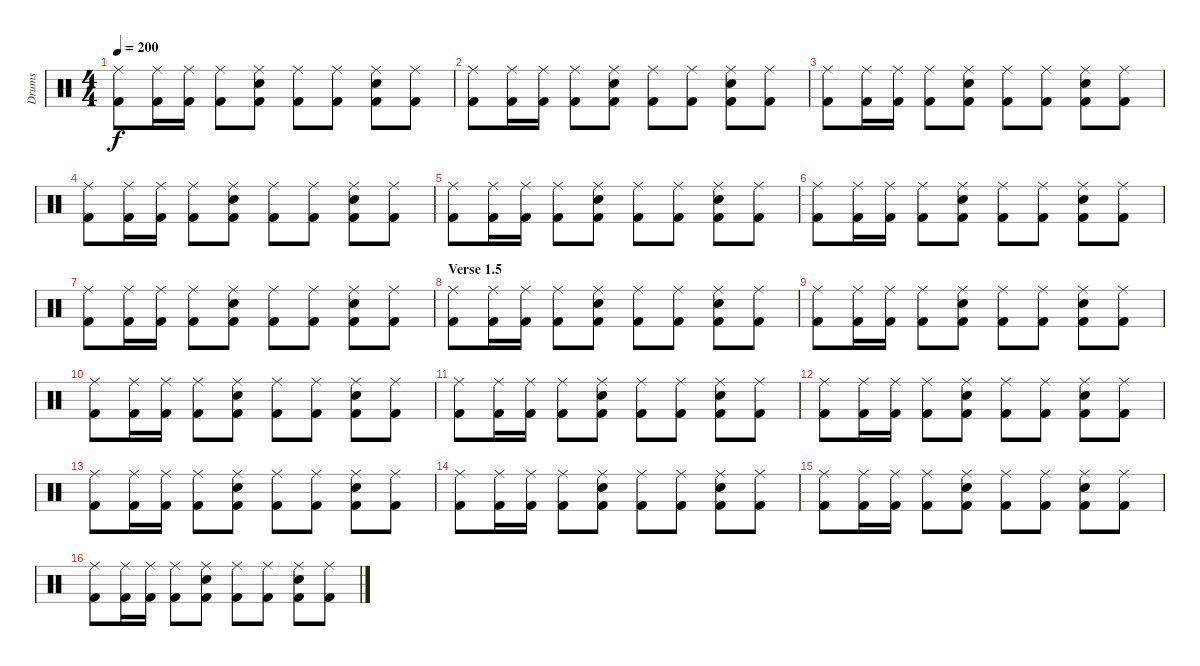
\track ("Drums" "Drums") {instrument percussion}
\staff {score}
\articulation defaults
\ts (4 4)
\tempo 200
\clef neutral
\ks c
("Ride (middle)" "Kick (hit) 2").8{dy f} ("Ride (middle)" "Kick (hit) 2").16 ("Ride (middle)" "Kick (hit) 2").16 ("Ride (middle)" "Kick (hit) 2").8 ("Ride (middle)" "Snare (hit) 2" "Kick (hit) 2").8 ("Ride (middle)" "Kick (hit) 2").8 ("Ride (middle)" "Kick (hit) 2").8 ("Ride (middle)" "Snare (hit) 2" "Kick (hit) 2").8 ("Ride (middle)" "Kick (hit) 2").8 |
("Ride (middle)" "Kick (hit) 2").8 ("Ride (middle)" "Kick (hit) 2").16 ("Ride (middle)" "Kick (hit) 2").16 ("Ride (middle)" "Kick (hit) 2").8 ("Ride (middle)" "Snare (hit) 2" "Kick (hit) 2").8 ("Ride (middle)" "Kick (hit) 2").8 ("Ride (middle)" "Kick (hit) 2").8 ("Ride (middle)" "Snare (hit) 2" "Kick (hit) 2").8 ("Ride (middle)" "Kick (hit) 2").8 |
("Ride (middle)" "Kick (hit) 2").8 ("Ride (middle)" "Kick (hit) 2").16 ("Ride (middle)" "Kick (hit) 2").16 ("Ride (middle)" "Kick (hit) 2").8 ("Ride (middle)" "Snare (hit) 2" "Kick (hit) 2").8 ("Ride (middle)" "Kick (hit) 2").8 ("Ride (middle)" "Kick (hit) 2").8 ("Ride (middle)" "Snare (hit) 2" "Kick (hit) 2").8 ("Ride (middle)" "Kick (hit) 2").8 |
("Ride (middle)" "Kick (hit) 2").8 ("Ride (middle)" "Kick (hit) 2").16 ("Ride (middle)" "Kick (hit) 2").16 ("Ride (middle)" "Kick (hit) 2").8 ("Ride (middle)" "Snare (hit) 2" "Kick (hit) 2").8 ("Ride (middle)" "Kick (hit) 2").8 ("Ride (middle)" "Kick (hit) 2").8 ("Ride (middle)" "Snare (hit) 2" "Kick (hit) 2").8 ("Ride (middle)" "Kick (hit) 2").8 |
("Ride (middle)" "Kick (hit) 2").8 ("Ride (middle)" "Kick (hit) 2").16 ("Ride (middle)" "Kick (hit) 2").16 ("Ride (middle)" "Kick (hit) 2").8 ("Ride (middle)" "Snare (hit) 2" "Kick (hit) 2").8 ("Ride (middle)" "Kick (hit) 2").8 ("Ride (middle)" "Kick (hit) 2").8 ("Ride (middle)" "Snare (hit) 2" "Kick (hit) 2").8 ("Ride (middle)" "Kick (hit) 2").8 |
("Ride (middle)" "Kick (hit) 2").8 ("Ride (middle)" "Kick (hit) 2").16 ("Ride (middle)" "Kick (hit) 2").16 ("Ride (middle)" "Kick (hit) 2").8 ("Ride (middle)" "Snare (hit) 2" "Kick (hit) 2").8 ("Ride (middle)" "Kick (hit) 2").8 ("Ride (middle)" "Kick (hit) 2").8 ("Ride (middle)" "Snare (hit) 2" "Kick (hit) 2").8 ("Ride (middle)" "Kick (hit) 2").8 |
("Ride (middle)" "Kick (hit) 2").8 ("Ride (middle)" "Kick (hit) 2").16 ("Ride (middle)" "Kick (hit) 2").16 ("Ride (middle)" "Kick (hit) 2").8 ("Ride (middle)" "Snare (hit) 2" "Kick (hit) 2").8 ("Ride (middle)" "Kick (hit) 2").8 ("Ride (middle)" "Kick (hit) 2").8 ("Ride (middle)" "Snare (hit) 2" "Kick (hit) 2").8 ("Ride (middle)" "Kick (hit) 2").8 |
\section ("" "Verse 1.5")
("Ride (middle)" "Kick (hit) 2").8 ("Ride (middle)" "Kick (hit) 2").16 ("Ride (middle)" "Kick (hit) 2").16 ("Ride (middle)" "Kick (hit) 2").8 ("Ride (middle)" "Snare (hit) 2" "Kick (hit) 2").8 ("Ride (middle)" "Kick (hit) 2").8 ("Ride (middle)" "Kick (hit) 2").8 ("Ride (middle)" "Snare (hit) 2" "Kick (hit) 2").8 ("Ride (middle)" "Kick (hit) 2").8 |
("Ride (middle)" "Kick (hit) 2").8 ("Ride (middle)" "Kick (hit) 2").16 ("Ride (middle)" "Kick (hit) 2").16 ("Ride (middle)" "Kick (hit) 2").8 ("Ride (middle)" "Snare (hit) 2" "Kick (hit) 2").8 ("Ride (middle)" "Kick (hit) 2").8 ("Ride (middle)" "Kick (hit) 2").8 ("Ride (middle)" "Snare (hit) 2" "Kick (hit) 2").8 ("Ride (middle)" "Kick (hit) 2").8 |
("Ride (middle)" "Kick (hit) 2").8 ("Ride (middle)" "Kick (hit) 2").16 ("Ride (middle)" "Kick (hit) 2").16 ("Ride (middle)" "Kick (hit) 2").8 ("Ride (middle)" "Snare (hit) 2" "Kick (hit) 2").8 ("Ride (middle)" "Kick (hit) 2").8 ("Ride (middle)" "Kick (hit) 2").8 ("Ride (middle)" "Snare (hit) 2" "Kick (hit) 2").8 ("Ride (middle)" "Kick (hit) 2").8 |
("Ride (middle)" "Kick (hit) 2").8 ("Ride (middle)" "Kick (hit) 2").16 ("Ride (middle)" "Kick (hit) 2").16 ("Ride (middle)" "Kick (hit) 2").8 ("Ride (middle)" "Snare (hit) 2" "Kick (hit) 2").8 ("Ride (middle)" "Kick (hit) 2").8 ("Ride (middle)" "Kick (hit) 2").8 ("Ride (middle)" "Snare (hit) 2" "Kick (hit) 2").8 ("Ride (middle)" "Kick (hit) 2").8 |
("Ride (middle)" "Kick (hit) 2").8 ("Ride (middle)" "Kick (hit) 2").16 ("Ride (middle)" "Kick (hit) 2").16 ("Ride (middle)" "Kick (hit) 2").8 ("Ride (middle)" "Snare (hit) 2" "Kick (hit) 2").8 ("Ride (middle)" "Kick (hit) 2").8 ("Ride (middle)" "Kick (hit) 2").8 ("Ride (middle)" "Snare (hit) 2" "Kick (hit) 2").8 ("Ride (middle)" "Kick (hit) 2").8 |
("Ride (middle)" "Kick (hit) 2").8 ("Ride (middle)" "Kick (hit) 2").16 ("Ride (middle)" "Kick (hit) 2").16 ("Ride (middle)" "Kick (hit) 2").8 ("Ride (middle)" "Snare (hit) 2" "Kick (hit) 2").8 ("Ride (middle)" "Kick (hit) 2").8 ("Ride (middle)" "Kick (hit) 2").8 ("Ride (middle)" "Snare (hit) 2" "Kick (hit) 2").8 ("Ride (middle)" "Kick (hit) 2").8 |
("Ride (middle)" "Kick (hit) 2").8 ("Ride (middle)" "Kick (hit) 2").16 ("Ride (middle)" "Kick (hit) 2").16 ("Ride (middle)" "Kick (hit) 2").8 ("Ride (middle)" "Snare (hit) 2" "Kick (hit) 2").8 ("Ride (middle)" "Kick (hit) 2").8 ("Ride (middle)" "Kick (hit) 2").8 ("Ride (middle)" "Snare (hit) 2" "Kick (hit) 2").8 ("Ride (middle)" "Kick (hit) 2").8 |
("Ride (middle)" "Kick (hit) 2").8 ("Ride (middle)" "Kick (hit) 2").16 ("Ride (middle)" "Kick (hit) 2").16 ("Ride (middle)" "Kick (hit) 2").8 ("Ride (middle)" "Snare (hit) 2" "Kick (hit) 2").8 ("Ride (middle)" "Kick (hit) 2").8 ("Ride (middle)" "Kick (hit) 2").8 ("Ride (middle)" "Snare (hit) 2" "Kick (hit) 2").8 ("Ride (middle)" "Kick (hit) 2").8 |
("Ride (middle)" "Kick (hit) 2").8 ("Ride (middle)" "Kick (hit) 2").16 ("Ride (middle)" "Kick (hit) 2").16 ("Ride (middle)" "Kick (hit) 2").8 ("Ride (middle)" "Snare (hit) 2" "Kick (hit) 2").8 ("Ride (middle)" "Kick (hit) 2").8 ("Ride (middle)" "Kick (hit) 2").8 ("Ride (middle)" "Snare (hit) 2" "Kick (hit) 2").8 ("Ride (middle)" "Kick (hit) 2").8
